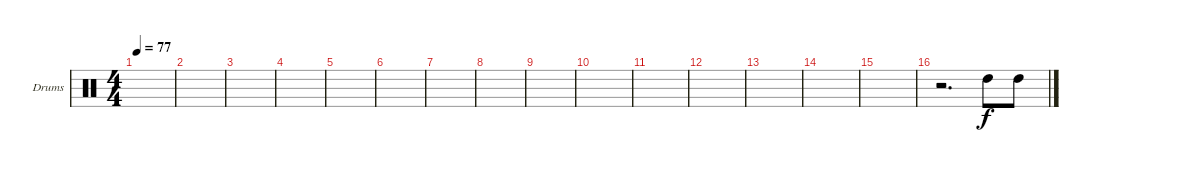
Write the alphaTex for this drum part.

\defaultSystemsLayout 4
\bracketExtendMode groupsimilarinstruments
\firstSystemTrackNameOrientation horizontal
\otherSystemsTrackNameOrientation horizontal
\track ("Drumkit" "Drums") {instrument percussion}
\staff {score}
\articulation defaults
\ts (4 4)
\tempo 77
\clef neutral
\scale
0.472222
\ks c
|
\scale
0.263889 |
\scale
0.263889 |
\scale
0.333333 |
\scale
0.333333 |
\scale
0.333333 |
\scale
0.333333 |
\scale
0.333333 |
\scale
0.333333 |
\scale
0.333333 |
\scale
0.333333 |
\scale
0.333333 |
\scale
0.333333 |
\scale
0.333333 |
\scale
0.333333 |
\scale
0.333333 r.2{d} "High Tom (hit)".8 "High Tom (hit)".8
